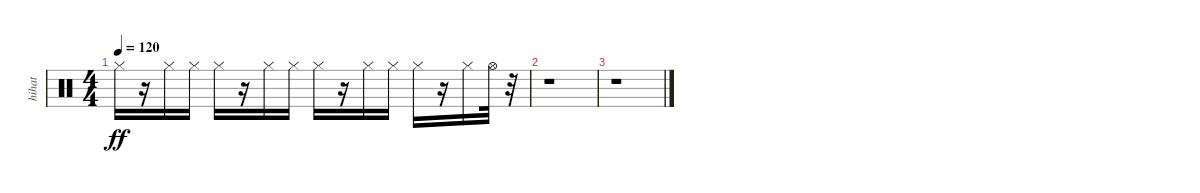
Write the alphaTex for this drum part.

\track ("hihat" "hihat") {instrument percussion}
\staff {score}
\articulation defaults
\ts (4 4)
\tempo 120
\clef neutral
\ks c "Hi-Hat (closed)".16{dy ff}
r.16 "Hi-Hat (closed)".16 "Hi-Hat (closed)".16 "Hi-Hat (closed)".16 r.16 "Hi-Hat (closed)".16 "Hi-Hat (closed)".16 "Hi-Hat (closed)".16 r.16 "Hi-Hat (closed)".16 "Hi-Hat (closed)".16 "Hi-Hat (closed)".16 r.16 "Hi-Hat (closed)".16 "Hi-Hat (open)".32 r.32 |
r.1 |
r.1
